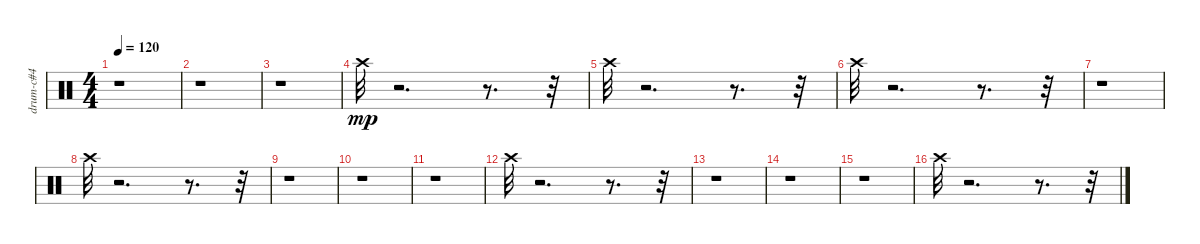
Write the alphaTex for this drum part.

\track ("drum-c#4" "drum-c#4") {instrument percussion}
\staff {score}
\articulation defaults
\ts (4 4)
\tempo 120
\clef neutral
\ks c
r.1{dy mp} |
r.1 |
r.1 |
"Crash high (hit)".32 r.2{d} r.8{d} r.32 |
"Crash high (hit)".32 r.2{d} r.8{d} r.32 |
"Crash high (hit)".32 r.2{d} r.8{d} r.32 |
r.1 |
"Crash high (hit)".32 r.2{d} r.8{d} r.32 |
r.1 |
r.1 |
r.1 |
"Crash high (hit)".32 r.2{d} r.8{d} r.32 |
r.1 |
r.1 |
r.1 |
"Crash high (hit)".32 r.2{d} r.8{d} r.32
